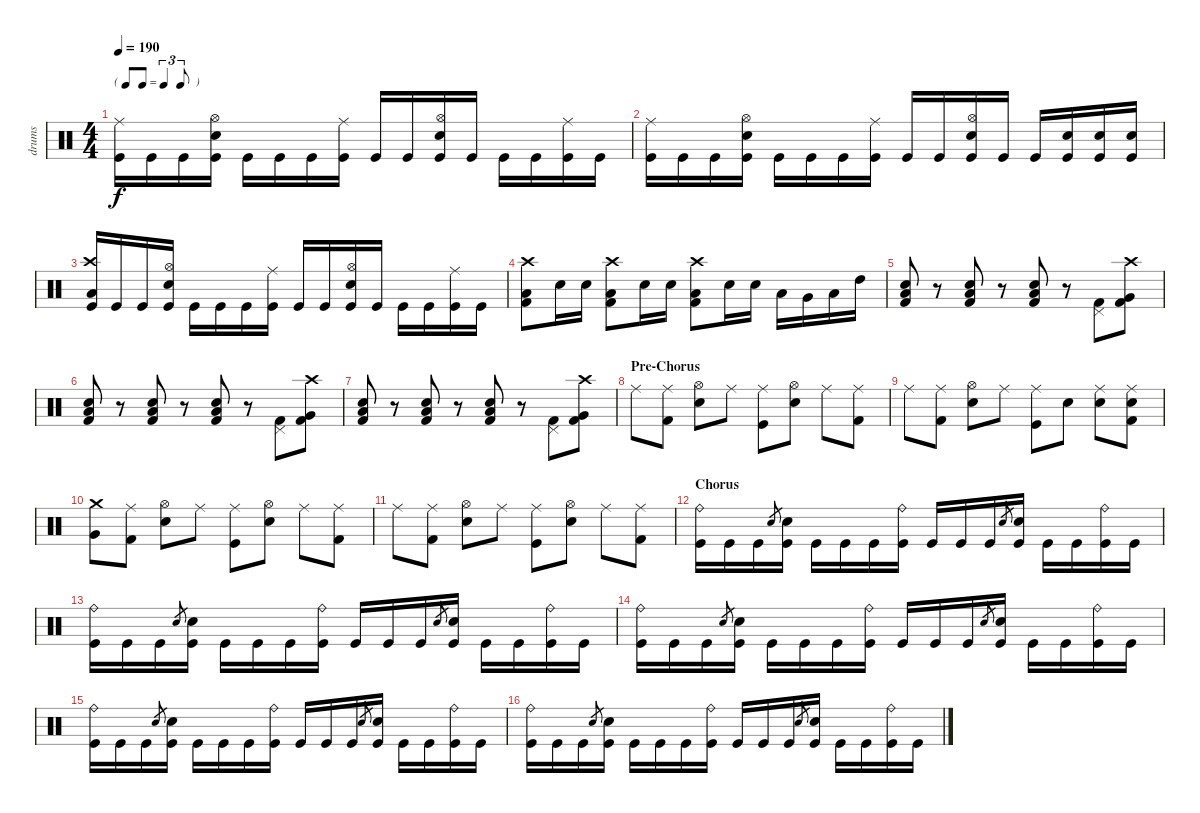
\track ("drums" "drums") {instrument percussion}
\staff {score}
\articulation defaults
\ts (4 4)
\tf triplet8th
\tempo 190
\clef neutral
\ks c
("Ride (middle)" "Kick (hit)").16{dy f} "Kick (hit)".16 "Kick (hit)".16 ("Hi-Hat (open)" "Electric Snare (hit)" "Kick (hit)").16 "Kick (hit)".16 "Kick (hit)".16 "Kick (hit)".16 ("Ride (middle)" "Kick (hit)").16 "Kick (hit)".16 "Kick (hit)".16 ("Hi-Hat (open)" "Electric Snare (hit)" "Kick (hit)").16 "Kick (hit)".16 "Kick (hit)".16 "Kick (hit)".16 ("Ride (middle)" "Kick (hit)").16 "Kick (hit)".16 |
("Ride (middle)" "Kick (hit)").16 "Kick (hit)".16 "Kick (hit)".16 ("Hi-Hat (open)" "Electric Snare (hit)" "Kick (hit)").16 "Kick (hit)".16 "Kick (hit)".16 "Kick (hit)".16 ("Ride (middle)" "Kick (hit)").16 "Kick (hit)".16 "Kick (hit)".16 ("Hi-Hat (open)" "Electric Snare (hit)" "Kick (hit)").16 "Kick (hit)".16 "Kick (hit)".16 ("Snare (hit) 2" "Kick (hit)").16 ("Snare (hit) 2" "Kick (hit)").16 ("Snare (hit) 2" "Kick (hit)").16 |
("Crash high (hit)" "Low Tom (hit)" "Kick (hit)").16 "Kick (hit)".16 "Kick (hit)".16 ("Hi-Hat (open)" "Electric Snare (hit)" "Kick (hit)").16 "Kick (hit)".16 "Kick (hit)".16 "Kick (hit)".16 ("Ride (middle)" "Kick (hit)").16 "Kick (hit)".16 "Kick (hit)".16 ("Hi-Hat (open)" "Electric Snare (hit)" "Kick (hit)").16 "Kick (hit)".16 "Kick (hit)".16 "Kick (hit)".16 ("Ride (middle)" "Kick (hit)").16 "Kick (hit)".16 |
("Crash high (hit)" "Low Floor Tom (hit)" "Kick (hit) 2").8 "Snare (hit) 2".16 "Snare (hit) 2".16 ("Crash high (hit)" "Low Floor Tom (hit)" "Kick (hit) 2").8 "Snare (hit) 2".16 "Snare (hit) 2".16 ("Crash high (hit)" "Low Floor Tom (hit)" "Kick (hit) 2").8 "Snare (hit) 2".16 "Snare (hit) 2".16 "Low Floor Tom (hit)".16 "Very Low Tom (hit)".16 "Low Tom (hit)".16 "High Tom (hit)".16 |
("Snare (hit) 2" "Low Floor Tom (hit)" "Kick (hit) 2").8 r.8 ("Snare (hit) 2" "Low Floor Tom (hit)" "Kick (hit) 2").8 r.8 ("Snare (hit) 2" "Low Floor Tom (hit)" "Kick (hit) 2").8 r.8 ("Kick (hit) 2" "Pedal Hi-Hat (hit)").8 ("Crash high (hit)" "Very Low Tom (hit)" "Kick (hit) 2").8 |
("Snare (hit) 2" "Low Floor Tom (hit)" "Kick (hit) 2").8 r.8 ("Snare (hit) 2" "Low Floor Tom (hit)" "Kick (hit) 2").8 r.8 ("Snare (hit) 2" "Low Floor Tom (hit)" "Kick (hit) 2").8 r.8 ("Kick (hit) 2" "Pedal Hi-Hat (hit)").8 ("Crash high (hit)" "Very Low Tom (hit)" "Kick (hit) 2").8 |
("Snare (hit) 2" "Low Floor Tom (hit)" "Kick (hit) 2").8 r.8 ("Snare (hit) 2" "Low Floor Tom (hit)" "Kick (hit) 2").8 r.8 ("Snare (hit) 2" "Low Floor Tom (hit)" "Kick (hit) 2").8 r.8 ("Kick (hit) 2" "Pedal Hi-Hat (hit)").8 ("Crash high (hit)" "Very Low Tom (hit)" "Kick (hit) 2").8 |
\section ("" "Pre-Chorus")
"Ride (middle)".8 ("Ride (middle)" "Kick (hit) 2").8 ("Hi-Hat (open)" "Snare (hit) 2").8 "Ride (middle)".8 ("Ride (middle)" "Kick (hit)").8 ("Hi-Hat (open)" "Snare (hit) 2").8 "Ride (middle)".8 ("Ride (middle)" "Kick (hit) 2").8 |
"Ride (middle)".8 ("Ride (middle)" "Kick (hit) 2").8 ("Hi-Hat (open)" "Snare (hit) 2").8 "Ride (middle)".8 ("Ride (middle)" "Kick (hit)").8 "Snare (hit) 2".8 ("Ride (middle)" "Snare (hit) 2").8 ("Ride (middle)" "Snare (hit) 2" "Kick (hit) 2").8 |
("Crash medium (hit)" "Very Low Tom (hit)").8 ("Ride (middle)" "Kick (hit) 2").8 ("Hi-Hat (open)" "Snare (hit) 2").8 "Ride (middle)".8 ("Ride (middle)" "Kick (hit)").8 ("Hi-Hat (open)" "Snare (hit) 2").8 "Ride (middle)".8 ("Ride (middle)" "Kick (hit) 2").8 |
"Ride (middle)".8 ("Ride (middle)" "Kick (hit) 2").8 ("Hi-Hat (open)" "Snare (hit) 2").8 "Ride (middle)".8 ("Ride (middle)" "Kick (hit)").8 ("Hi-Hat (open)" "Snare (hit) 2").8 "Ride (middle)".8 ("Ride (middle)" "Kick (hit) 2").8 |
\section ("" "Chorus")
("Kick (hit)" "Ride (bell)").16 "Kick (hit)".16 "Kick (hit)".16 "Electric Snare (hit)".8{gr} ("Kick (hit)" "Electric Snare (hit)").16 "Kick (hit)".16 "Kick (hit)".16 "Kick (hit)".16 ("Kick (hit)" "Ride (bell)").16 "Kick (hit)".16 "Kick (hit)".16 "Kick (hit)".16 "Electric Snare (hit)".8{gr} ("Kick (hit)" "Electric Snare (hit)").16 "Kick (hit)".16 "Kick (hit)".16 ("Kick (hit)" "Ride (bell)").16 "Kick (hit)".16 |
("Kick (hit)" "Ride (bell)").16 "Kick (hit)".16 "Kick (hit)".16 "Electric Snare (hit)".8{gr} ("Kick (hit)" "Electric Snare (hit)").16 "Kick (hit)".16 "Kick (hit)".16 "Kick (hit)".16 ("Kick (hit)" "Ride (bell)").16 "Kick (hit)".16 "Kick (hit)".16 "Kick (hit)".16 "Electric Snare (hit)".8{gr} ("Kick (hit)" "Electric Snare (hit)").16 "Kick (hit)".16 "Kick (hit)".16 ("Kick (hit)" "Ride (bell)").16 "Kick (hit)".16 |
("Kick (hit)" "Ride (bell)").16 "Kick (hit)".16 "Kick (hit)".16 "Electric Snare (hit)".8{gr} ("Kick (hit)" "Electric Snare (hit)").16 "Kick (hit)".16 "Kick (hit)".16 "Kick (hit)".16 ("Kick (hit)" "Ride (bell)").16 "Kick (hit)".16 "Kick (hit)".16 "Kick (hit)".16 "Electric Snare (hit)".8{gr} ("Kick (hit)" "Electric Snare (hit)").16 "Kick (hit)".16 "Kick (hit)".16 ("Kick (hit)" "Ride (bell)").16 "Kick (hit)".16 |
("Kick (hit)" "Ride (bell)").16 "Kick (hit)".16 "Kick (hit)".16 "Electric Snare (hit)".8{gr} ("Kick (hit)" "Electric Snare (hit)").16 "Kick (hit)".16 "Kick (hit)".16 "Kick (hit)".16 ("Kick (hit)" "Ride (bell)").16 "Kick (hit)".16 "Kick (hit)".16 "Kick (hit)".16 "Electric Snare (hit)".8{gr} ("Kick (hit)" "Electric Snare (hit)").16 "Kick (hit)".16 "Kick (hit)".16 ("Kick (hit)" "Ride (bell)").16 "Kick (hit)".16 |
("Kick (hit)" "Ride (bell)").16 "Kick (hit)".16 "Kick (hit)".16 "Electric Snare (hit)".8{gr} ("Kick (hit)" "Electric Snare (hit)").16 "Kick (hit)".16 "Kick (hit)".16 "Kick (hit)".16 ("Kick (hit)" "Ride (bell)").16 "Kick (hit)".16 "Kick (hit)".16 "Kick (hit)".16 "Electric Snare (hit)".8{gr} ("Kick (hit)" "Electric Snare (hit)").16 "Kick (hit)".16 "Kick (hit)".16 ("Kick (hit)" "Ride (bell)").16 "Kick (hit)".16
